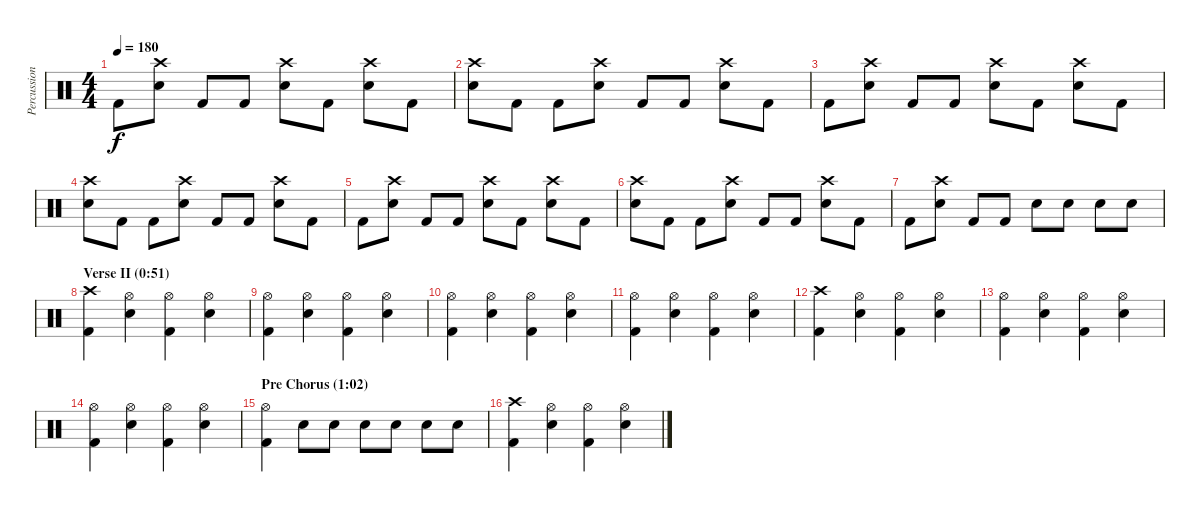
\track ("Percussion" "Percussion") {instrument percussion}
\staff {score}
\articulation defaults
\ts (4 4)
\tempo 180
\clef neutral
\ks c "Kick (hit) 2".8{dy f}
("Crash high (hit)" "Electric Snare (hit)").8 "Kick (hit) 2".8 "Kick (hit) 2".8 ("Crash high (hit)" "Electric Snare (hit)").8 "Kick (hit) 2".8 ("Crash high (hit)" "Electric Snare (hit)").8 "Kick (hit) 2".8 |
("Crash high (hit)" "Electric Snare (hit)").8 "Kick (hit) 2".8 "Kick (hit) 2".8 ("Crash high (hit)" "Electric Snare (hit)").8 "Kick (hit) 2".8 "Kick (hit) 2".8 ("Crash high (hit)" "Electric Snare (hit)").8 "Kick (hit) 2".8 |
"Kick (hit) 2".8 ("Crash high (hit)" "Electric Snare (hit)").8 "Kick (hit) 2".8 "Kick (hit) 2".8 ("Crash high (hit)" "Electric Snare (hit)").8 "Kick (hit) 2".8 ("Crash high (hit)" "Electric Snare (hit)").8 "Kick (hit) 2".8 |
("Crash high (hit)" "Electric Snare (hit)").8 "Kick (hit) 2".8 "Kick (hit) 2".8 ("Crash high (hit)" "Electric Snare (hit)").8 "Kick (hit) 2".8 "Kick (hit) 2".8 ("Crash high (hit)" "Electric Snare (hit)").8 "Kick (hit) 2".8 |
"Kick (hit) 2".8 ("Crash high (hit)" "Electric Snare (hit)").8 "Kick (hit) 2".8 "Kick (hit) 2".8 ("Crash high (hit)" "Electric Snare (hit)").8 "Kick (hit) 2".8 ("Crash high (hit)" "Electric Snare (hit)").8 "Kick (hit) 2".8 |
("Crash high (hit)" "Electric Snare (hit)").8 "Kick (hit) 2".8 "Kick (hit) 2".8 ("Crash high (hit)" "Electric Snare (hit)").8 "Kick (hit) 2".8 "Kick (hit) 2".8 ("Crash high (hit)" "Electric Snare (hit)").8 "Kick (hit) 2".8 |
"Kick (hit) 2".8 ("Crash high (hit)" "Electric Snare (hit)").8 "Kick (hit) 2".8 "Kick (hit) 2".8 "Electric Snare (hit)".8 "Electric Snare (hit)".8 "Electric Snare (hit)".8 "Electric Snare (hit)".8 |
\section ("" "Verse II (0:51)")
("Crash high (hit)" "Kick (hit) 2").4 ("Hi-Hat (open)" "Electric Snare (hit)").4 ("Hi-Hat (open)" "Kick (hit) 2").4 ("Hi-Hat (open)" "Electric Snare (hit)").4 |
("Hi-Hat (open)" "Kick (hit) 2").4 ("Hi-Hat (open)" "Electric Snare (hit)").4 ("Hi-Hat (open)" "Kick (hit) 2").4 ("Hi-Hat (open)" "Electric Snare (hit)").4 |
("Hi-Hat (open)" "Kick (hit) 2").4 ("Hi-Hat (open)" "Electric Snare (hit)").4 ("Hi-Hat (open)" "Kick (hit) 2").4 ("Hi-Hat (open)" "Electric Snare (hit)").4 |
("Hi-Hat (open)" "Kick (hit) 2").4 ("Hi-Hat (open)" "Electric Snare (hit)").4 ("Hi-Hat (open)" "Kick (hit) 2").4 ("Hi-Hat (open)" "Electric Snare (hit)").4 |
("Crash high (hit)" "Kick (hit) 2").4 ("Hi-Hat (open)" "Electric Snare (hit)").4 ("Hi-Hat (open)" "Kick (hit) 2").4 ("Hi-Hat (open)" "Electric Snare (hit)").4 |
("Hi-Hat (open)" "Kick (hit) 2").4 ("Hi-Hat (open)" "Electric Snare (hit)").4 ("Hi-Hat (open)" "Kick (hit) 2").4 ("Hi-Hat (open)" "Electric Snare (hit)").4 |
("Hi-Hat (open)" "Kick (hit) 2").4 ("Hi-Hat (open)" "Electric Snare (hit)").4 ("Hi-Hat (open)" "Kick (hit) 2").4 ("Hi-Hat (open)" "Electric Snare (hit)").4 |
\section ("" "Pre Chorus (1:02)")
("Hi-Hat (open)" "Kick (hit) 2").4 "Electric Snare (hit)".8 "Electric Snare (hit)".8 "Electric Snare (hit)".8 "Electric Snare (hit)".8 "Electric Snare (hit)".8 "Electric Snare (hit)".8 |
("Crash high (hit)" "Kick (hit) 2").4 ("Hi-Hat (open)" "Electric Snare (hit)").4 ("Hi-Hat (open)" "Kick (hit) 2").4 ("Hi-Hat (open)" "Electric Snare (hit)").4
